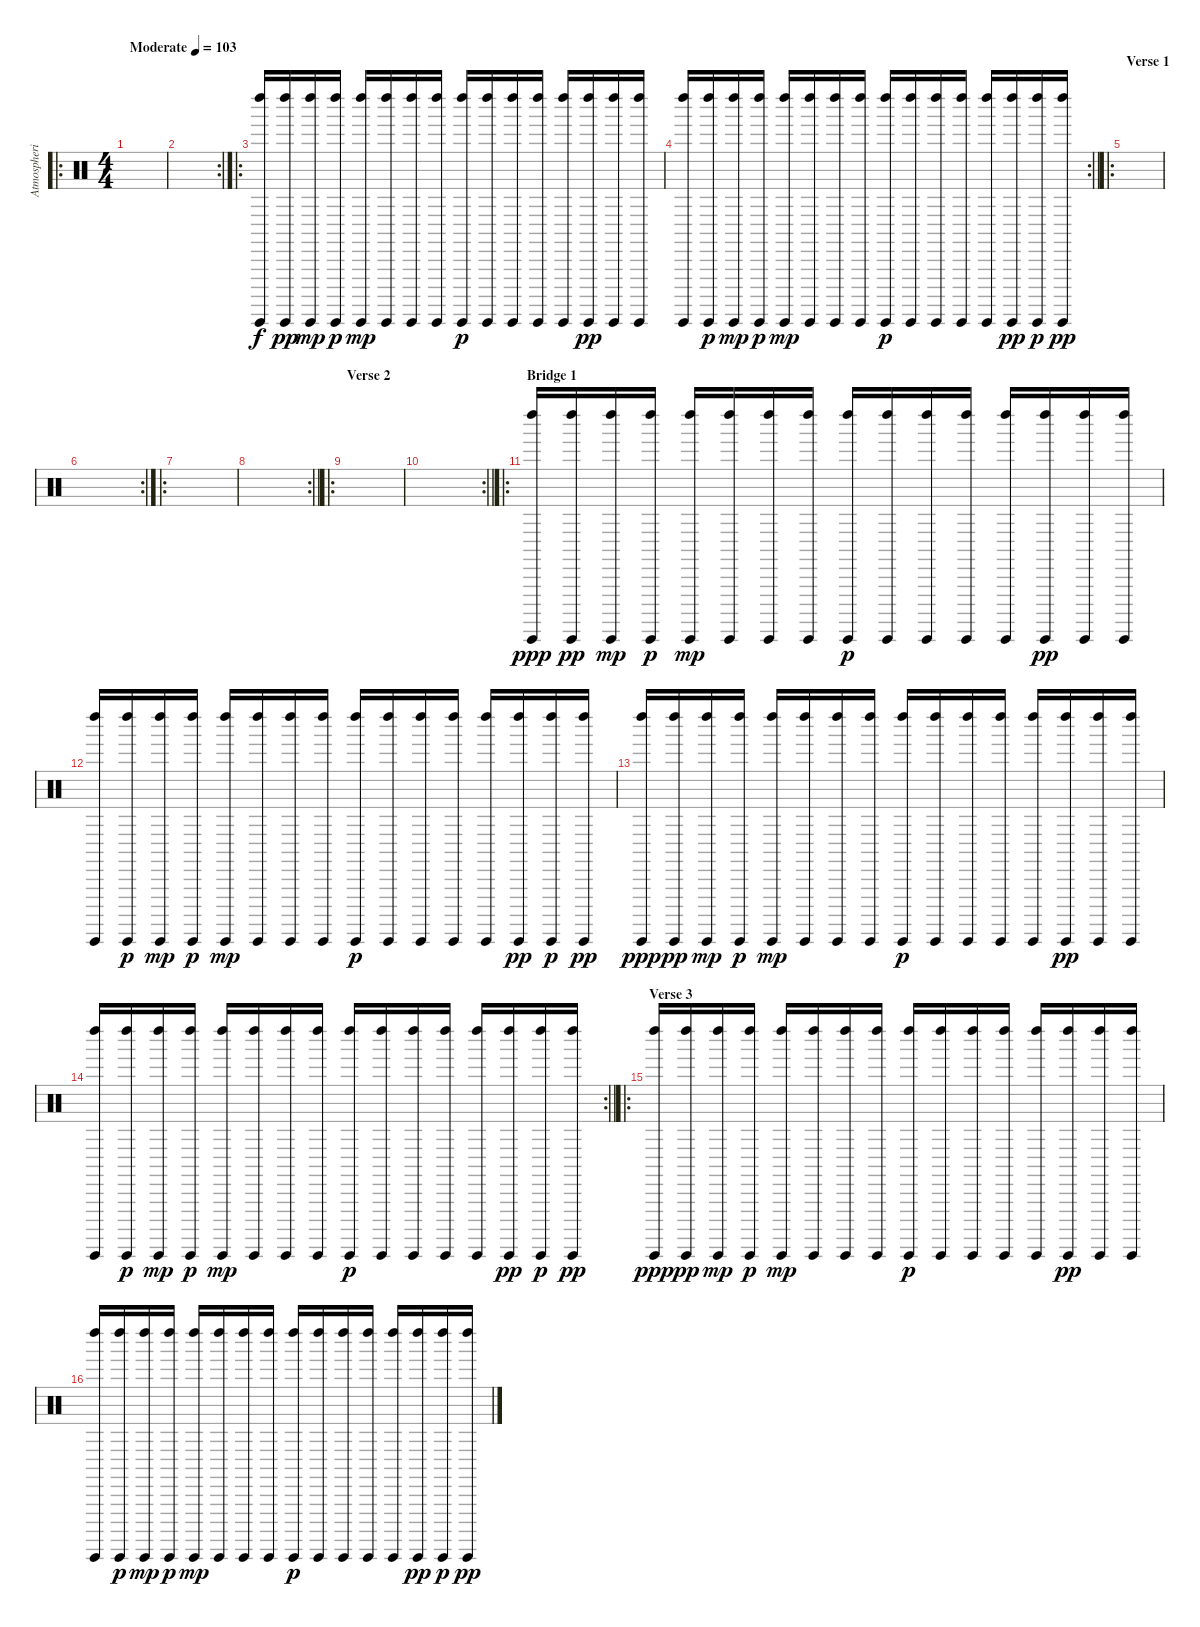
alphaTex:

\track ("Atmospheric Percussion" "Atmospheri") {instrument percussion}
\staff {score}
\articulation defaults
\ro
\ts (4 4)
\tempo (103 "Moderate")
\clef neutral
\ks c
|
\rc 2
|
\ro
("Guiro (hit)" "Left Maraca (hit)").16 ("Guiro (hit)" "Left Maraca (hit)").16{dy pp} ("Guiro (hit)" "Left Maraca (hit)").16{dy mp} ("Guiro (hit)" "Left Maraca (hit)").16{dy p} ("Guiro (hit)" "Left Maraca (hit)").16{dy mp} ("Guiro (hit)" "Left Maraca (hit)").16 ("Guiro (hit)" "Left Maraca (hit)").16 ("Guiro (hit)" "Left Maraca (hit)").16 ("Guiro (hit)" "Left Maraca (hit)").16{dy p} ("Guiro (hit)" "Left Maraca (hit)").16 ("Guiro (hit)" "Left Maraca (hit)").16 ("Guiro (hit)" "Left Maraca (hit)").16 ("Guiro (hit)" "Left Maraca (hit)").16 ("Guiro (hit)" "Left Maraca (hit)").16{dy pp} ("Guiro (hit)" "Left Maraca (hit)").16 ("Guiro (hit)" "Left Maraca (hit)").16 |
\rc 2
\barLineRight lightlight
("Guiro (hit)" "Left Maraca (hit)").16 ("Guiro (hit)" "Left Maraca (hit)").16{dy p} ("Guiro (hit)" "Left Maraca (hit)").16{dy mp} ("Guiro (hit)" "Left Maraca (hit)").16{dy p} ("Guiro (hit)" "Left Maraca (hit)").16{dy mp} ("Guiro (hit)" "Left Maraca (hit)").16 ("Guiro (hit)" "Left Maraca (hit)").16 ("Guiro (hit)" "Left Maraca (hit)").16 ("Guiro (hit)" "Left Maraca (hit)").16{dy p} ("Guiro (hit)" "Left Maraca (hit)").16 ("Guiro (hit)" "Left Maraca (hit)").16 ("Guiro (hit)" "Left Maraca (hit)").16 ("Guiro (hit)" "Left Maraca (hit)").16 ("Guiro (hit)" "Left Maraca (hit)").16{dy pp} ("Guiro (hit)" "Left Maraca (hit)").16{dy p} ("Guiro (hit)" "Left Maraca (hit)").16{dy pp} |
\ro
\section ("" "Verse 1")
|
\rc 2
|
\ro
|
\rc 2
\barLineRight lightlight
|
\ro
\section ("" "Verse 2")
|
\rc 2
\barLineRight lightlight
|
\ro
\section ("" "Bridge 1")
("Guiro (hit)" "Left Maraca (hit)").16{dy ppp} ("Guiro (hit)" "Left Maraca (hit)").16{dy pp} ("Guiro (hit)" "Left Maraca (hit)").16{dy mp} ("Guiro (hit)" "Left Maraca (hit)").16{dy p} ("Guiro (hit)" "Left Maraca (hit)").16{dy mp} ("Guiro (hit)" "Left Maraca (hit)").16 ("Guiro (hit)" "Left Maraca (hit)").16 ("Guiro (hit)" "Left Maraca (hit)").16 ("Guiro (hit)" "Left Maraca (hit)").16{dy p} ("Guiro (hit)" "Left Maraca (hit)").16 ("Guiro (hit)" "Left Maraca (hit)").16 ("Guiro (hit)" "Left Maraca (hit)").16 ("Guiro (hit)" "Left Maraca (hit)").16 ("Guiro (hit)" "Left Maraca (hit)").16{dy pp} ("Guiro (hit)" "Left Maraca (hit)").16 ("Guiro (hit)" "Left Maraca (hit)").16 |
("Guiro (hit)" "Left Maraca (hit)").16 ("Guiro (hit)" "Left Maraca (hit)").16{dy p} ("Guiro (hit)" "Left Maraca (hit)").16{dy mp} ("Guiro (hit)" "Left Maraca (hit)").16{dy p} ("Guiro (hit)" "Left Maraca (hit)").16{dy mp} ("Guiro (hit)" "Left Maraca (hit)").16 ("Guiro (hit)" "Left Maraca (hit)").16 ("Guiro (hit)" "Left Maraca (hit)").16 ("Guiro (hit)" "Left Maraca (hit)").16{dy p} ("Guiro (hit)" "Left Maraca (hit)").16 ("Guiro (hit)" "Left Maraca (hit)").16 ("Guiro (hit)" "Left Maraca (hit)").16 ("Guiro (hit)" "Left Maraca (hit)").16 ("Guiro (hit)" "Left Maraca (hit)").16{dy pp} ("Guiro (hit)" "Left Maraca (hit)").16{dy p} ("Guiro (hit)" "Left Maraca (hit)").16{dy pp} |
("Guiro (hit)" "Left Maraca (hit)").16{dy ppp} ("Guiro (hit)" "Left Maraca (hit)").16{dy pp} ("Guiro (hit)" "Left Maraca (hit)").16{dy mp} ("Guiro (hit)" "Left Maraca (hit)").16{dy p} ("Guiro (hit)" "Left Maraca (hit)").16{dy mp} ("Guiro (hit)" "Left Maraca (hit)").16 ("Guiro (hit)" "Left Maraca (hit)").16 ("Guiro (hit)" "Left Maraca (hit)").16 ("Guiro (hit)" "Left Maraca (hit)").16{dy p} ("Guiro (hit)" "Left Maraca (hit)").16 ("Guiro (hit)" "Left Maraca (hit)").16 ("Guiro (hit)" "Left Maraca (hit)").16 ("Guiro (hit)" "Left Maraca (hit)").16 ("Guiro (hit)" "Left Maraca (hit)").16{dy pp} ("Guiro (hit)" "Left Maraca (hit)").16 ("Guiro (hit)" "Left Maraca (hit)").16 |
\rc 2
\barLineRight lightlight
("Guiro (hit)" "Left Maraca (hit)").16 ("Guiro (hit)" "Left Maraca (hit)").16{dy p} ("Guiro (hit)" "Left Maraca (hit)").16{dy mp} ("Guiro (hit)" "Left Maraca (hit)").16{dy p} ("Guiro (hit)" "Left Maraca (hit)").16{dy mp} ("Guiro (hit)" "Left Maraca (hit)").16 ("Guiro (hit)" "Left Maraca (hit)").16 ("Guiro (hit)" "Left Maraca (hit)").16 ("Guiro (hit)" "Left Maraca (hit)").16{dy p} ("Guiro (hit)" "Left Maraca (hit)").16 ("Guiro (hit)" "Left Maraca (hit)").16 ("Guiro (hit)" "Left Maraca (hit)").16 ("Guiro (hit)" "Left Maraca (hit)").16 ("Guiro (hit)" "Left Maraca (hit)").16{dy pp} ("Guiro (hit)" "Left Maraca (hit)").16{dy p} ("Guiro (hit)" "Left Maraca (hit)").16{dy pp} |
\ro
\section ("" "Verse 3")
("Guiro (hit)" "Left Maraca (hit)").16{dy ppp} ("Guiro (hit)" "Left Maraca (hit)").16{dy pp} ("Guiro (hit)" "Left Maraca (hit)").16{dy mp} ("Guiro (hit)" "Left Maraca (hit)").16{dy p} ("Guiro (hit)" "Left Maraca (hit)").16{dy mp} ("Guiro (hit)" "Left Maraca (hit)").16 ("Guiro (hit)" "Left Maraca (hit)").16 ("Guiro (hit)" "Left Maraca (hit)").16 ("Guiro (hit)" "Left Maraca (hit)").16{dy p} ("Guiro (hit)" "Left Maraca (hit)").16 ("Guiro (hit)" "Left Maraca (hit)").16 ("Guiro (hit)" "Left Maraca (hit)").16 ("Guiro (hit)" "Left Maraca (hit)").16 ("Guiro (hit)" "Left Maraca (hit)").16{dy pp} ("Guiro (hit)" "Left Maraca (hit)").16 ("Guiro (hit)" "Left Maraca (hit)").16 |
("Guiro (hit)" "Left Maraca (hit)").16 ("Guiro (hit)" "Left Maraca (hit)").16{dy p} ("Guiro (hit)" "Left Maraca (hit)").16{dy mp} ("Guiro (hit)" "Left Maraca (hit)").16{dy p} ("Guiro (hit)" "Left Maraca (hit)").16{dy mp} ("Guiro (hit)" "Left Maraca (hit)").16 ("Guiro (hit)" "Left Maraca (hit)").16 ("Guiro (hit)" "Left Maraca (hit)").16 ("Guiro (hit)" "Left Maraca (hit)").16{dy p} ("Guiro (hit)" "Left Maraca (hit)").16 ("Guiro (hit)" "Left Maraca (hit)").16 ("Guiro (hit)" "Left Maraca (hit)").16 ("Guiro (hit)" "Left Maraca (hit)").16 ("Guiro (hit)" "Left Maraca (hit)").16{dy pp} ("Guiro (hit)" "Left Maraca (hit)").16{dy p} ("Guiro (hit)" "Left Maraca (hit)").16{dy pp}
